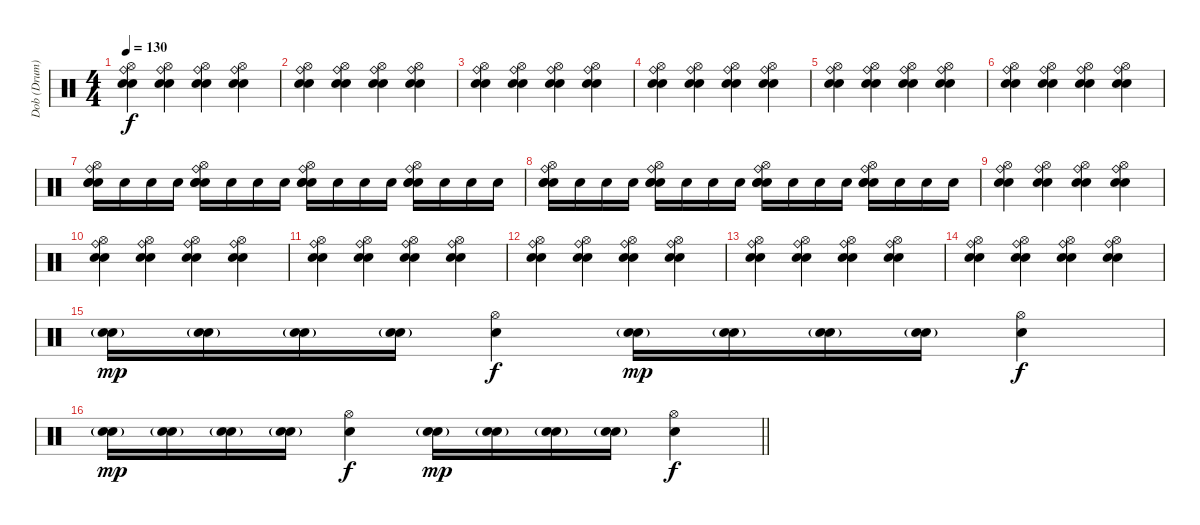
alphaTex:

\track ("Dob (Drum)" "Dob (Drum)") {instrument percussion}
\staff {score}
\articulation defaults
\ts (4 4)
\tempo 130
\clef neutral
\ks c
("Ride (bell)" "Hi-Hat (open)" "Hand Clap (hit)" "Snare (hit) 2").4{dy f} ("Ride (bell)" "Hi-Hat (open)" "Hand Clap (hit)" "Snare (hit) 2").4 ("Ride (bell)" "Hi-Hat (open)" "Hand Clap (hit)" "Snare (hit) 2").4 ("Ride (bell)" "Hi-Hat (open)" "Hand Clap (hit)" "Snare (hit) 2").4 |
("Ride (bell)" "Hi-Hat (open)" "Hand Clap (hit)" "Snare (hit) 2").4 ("Ride (bell)" "Hi-Hat (open)" "Hand Clap (hit)" "Snare (hit) 2").4 ("Ride (bell)" "Hi-Hat (open)" "Hand Clap (hit)" "Snare (hit) 2").4 ("Ride (bell)" "Hi-Hat (open)" "Hand Clap (hit)" "Snare (hit) 2").4 |
("Ride (bell)" "Hi-Hat (open)" "Hand Clap (hit)" "Snare (hit) 2").4 ("Ride (bell)" "Hi-Hat (open)" "Hand Clap (hit)" "Snare (hit) 2").4 ("Ride (bell)" "Hi-Hat (open)" "Hand Clap (hit)" "Snare (hit) 2").4 ("Ride (bell)" "Hi-Hat (open)" "Hand Clap (hit)" "Snare (hit) 2").4 |
("Ride (bell)" "Hi-Hat (open)" "Hand Clap (hit)" "Snare (hit) 2").4 ("Ride (bell)" "Hi-Hat (open)" "Hand Clap (hit)" "Snare (hit) 2").4 ("Ride (bell)" "Hi-Hat (open)" "Hand Clap (hit)" "Snare (hit) 2").4 ("Ride (bell)" "Hi-Hat (open)" "Hand Clap (hit)" "Snare (hit) 2").4 |
("Ride (bell)" "Hi-Hat (open)" "Hand Clap (hit)" "Snare (hit) 2").4 ("Ride (bell)" "Hi-Hat (open)" "Hand Clap (hit)" "Snare (hit) 2").4 ("Ride (bell)" "Hi-Hat (open)" "Hand Clap (hit)" "Snare (hit) 2").4 ("Ride (bell)" "Hi-Hat (open)" "Hand Clap (hit)" "Snare (hit) 2").4 |
("Ride (bell)" "Hi-Hat (open)" "Hand Clap (hit)" "Snare (hit) 2").4 ("Ride (bell)" "Hi-Hat (open)" "Hand Clap (hit)" "Snare (hit) 2").4 ("Ride (bell)" "Hi-Hat (open)" "Hand Clap (hit)" "Snare (hit) 2").4 ("Ride (bell)" "Hi-Hat (open)" "Hand Clap (hit)" "Snare (hit) 2").4 |
("Ride (bell)" "Hi-Hat (open)" "Hand Clap (hit)" "Electric Snare (hit)" "Snare (hit) 2").16 "Electric Snare (hit)".16 "Electric Snare (hit)".16 "Electric Snare (hit)".16 ("Ride (bell)" "Hi-Hat (open)" "Hand Clap (hit)" "Electric Snare (hit)" "Snare (hit) 2").16 "Electric Snare (hit)".16 "Electric Snare (hit)".16 "Electric Snare (hit)".16 ("Ride (bell)" "Hi-Hat (open)" "Hand Clap (hit)" "Electric Snare (hit)" "Snare (hit) 2").16 "Electric Snare (hit)".16 "Electric Snare (hit)".16 "Electric Snare (hit)".16 ("Ride (bell)" "Hi-Hat (open)" "Hand Clap (hit)" "Electric Snare (hit)" "Snare (hit) 2").16 "Electric Snare (hit)".16 "Electric Snare (hit)".16 "Electric Snare (hit)".16 |
("Ride (bell)" "Hi-Hat (open)" "Hand Clap (hit)" "Electric Snare (hit)" "Snare (hit) 2").16 "Electric Snare (hit)".16 "Electric Snare (hit)".16 "Electric Snare (hit)".16 ("Ride (bell)" "Hi-Hat (open)" "Hand Clap (hit)" "Electric Snare (hit)" "Snare (hit) 2").16 "Electric Snare (hit)".16 "Electric Snare (hit)".16 "Electric Snare (hit)".16 ("Ride (bell)" "Hi-Hat (open)" "Hand Clap (hit)" "Electric Snare (hit)" "Snare (hit) 2").16 "Electric Snare (hit)".16 "Electric Snare (hit)".16 "Electric Snare (hit)".16 ("Ride (bell)" "Hi-Hat (open)" "Hand Clap (hit)" "Electric Snare (hit)" "Snare (hit) 2").16 "Electric Snare (hit)".16 "Electric Snare (hit)".16 "Electric Snare (hit)".16 |
("Ride (bell)" "Hi-Hat (open)" "Hand Clap (hit)" "Snare (hit) 2").4 ("Ride (bell)" "Hi-Hat (open)" "Hand Clap (hit)" "Snare (hit) 2").4 ("Ride (bell)" "Hi-Hat (open)" "Hand Clap (hit)" "Snare (hit) 2").4 ("Ride (bell)" "Hi-Hat (open)" "Hand Clap (hit)" "Snare (hit) 2").4 |
("Ride (bell)" "Hi-Hat (open)" "Hand Clap (hit)" "Snare (hit) 2").4 ("Ride (bell)" "Hi-Hat (open)" "Hand Clap (hit)" "Snare (hit) 2").4 ("Ride (bell)" "Hi-Hat (open)" "Hand Clap (hit)" "Snare (hit) 2").4 ("Ride (bell)" "Hi-Hat (open)" "Hand Clap (hit)" "Snare (hit) 2").4 |
("Ride (bell)" "Hi-Hat (open)" "Hand Clap (hit)" "Snare (hit) 2").4 ("Ride (bell)" "Hi-Hat (open)" "Hand Clap (hit)" "Snare (hit) 2").4 ("Ride (bell)" "Hi-Hat (open)" "Hand Clap (hit)" "Snare (hit) 2").4 ("Ride (bell)" "Hi-Hat (open)" "Hand Clap (hit)" "Snare (hit) 2").4 |
("Ride (bell)" "Hi-Hat (open)" "Hand Clap (hit)" "Snare (hit) 2").4 ("Ride (bell)" "Hi-Hat (open)" "Hand Clap (hit)" "Snare (hit) 2").4 ("Ride (bell)" "Hi-Hat (open)" "Hand Clap (hit)" "Snare (hit) 2").4 ("Ride (bell)" "Hi-Hat (open)" "Hand Clap (hit)" "Snare (hit) 2").4 |
("Ride (bell)" "Hi-Hat (open)" "Hand Clap (hit)" "Snare (hit) 2").4 ("Ride (bell)" "Hi-Hat (open)" "Hand Clap (hit)" "Snare (hit) 2").4 ("Ride (bell)" "Hi-Hat (open)" "Hand Clap (hit)" "Snare (hit) 2").4 ("Ride (bell)" "Hi-Hat (open)" "Hand Clap (hit)" "Snare (hit) 2").4 |
("Ride (bell)" "Hi-Hat (open)" "Hand Clap (hit)" "Snare (hit) 2").4 ("Ride (bell)" "Hi-Hat (open)" "Hand Clap (hit)" "Snare (hit) 2").4 ("Ride (bell)" "Hi-Hat (open)" "Hand Clap (hit)" "Snare (hit) 2").4 ("Ride (bell)" "Hi-Hat (open)" "Hand Clap (hit)" "Snare (hit) 2").4 |
("Electric Snare (hit)"{g} "Snare (hit) 2").16{dy mp} ("Electric Snare (hit)"{g} "Snare (hit) 2").16 ("Electric Snare (hit)"{g} "Snare (hit) 2").16 ("Electric Snare (hit)"{g} "Snare (hit) 2").16 ("Hi-Hat (open)" "Electric Snare (hit)").4{dy f} ("Electric Snare (hit)"{g} "Snare (hit) 2").16{dy mp} ("Electric Snare (hit)"{g} "Snare (hit) 2").16 ("Electric Snare (hit)"{g} "Snare (hit) 2").16 ("Electric Snare (hit)"{g} "Snare (hit) 2").16 ("Hi-Hat (open)" "Electric Snare (hit)").4{dy f} |
\barLineRight lightlight
("Electric Snare (hit)"{g} "Snare (hit) 2").16{dy mp} ("Electric Snare (hit)"{g} "Snare (hit) 2").16 ("Electric Snare (hit)"{g} "Snare (hit) 2").16 ("Electric Snare (hit)"{g} "Snare (hit) 2").16 ("Hi-Hat (open)" "Electric Snare (hit)").4{dy f} ("Electric Snare (hit)"{g} "Snare (hit) 2").16{dy mp} ("Electric Snare (hit)"{g} "Snare (hit) 2").16 ("Electric Snare (hit)"{g} "Snare (hit) 2").16 ("Electric Snare (hit)"{g} "Snare (hit) 2").16 ("Hi-Hat (open)" "Electric Snare (hit)").4{dy f}
